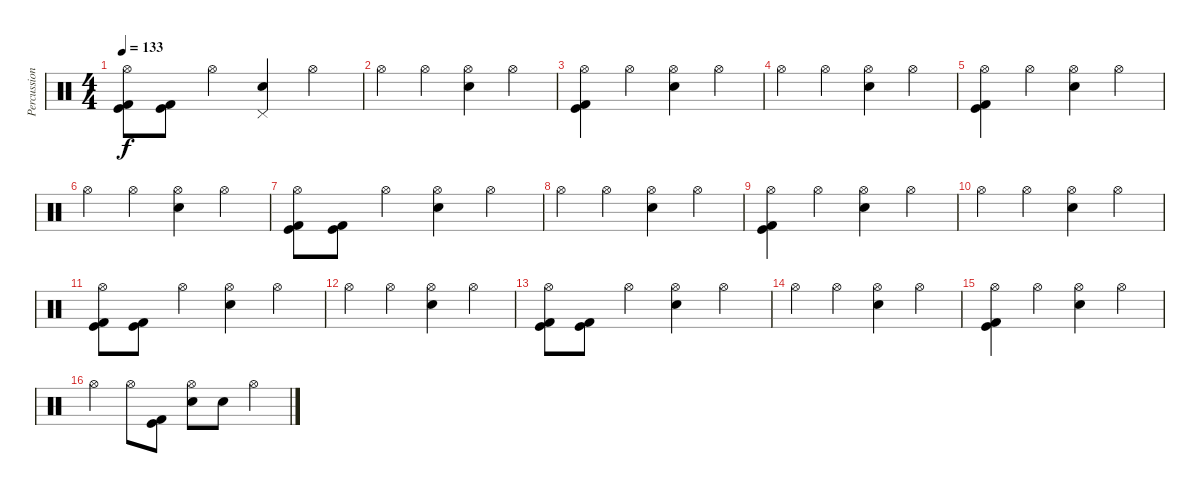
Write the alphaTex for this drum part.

\track ("Percussion" "Percussion") {instrument percussion}
\staff {score}
\articulation defaults
\ts (4 4)
\tempo 133
\clef neutral
\ks c
("Hi-Hat (open)" "Kick (hit)" "Kick (hit) 2").8{dy f} ("Kick (hit)" "Kick (hit) 2").8 "Hi-Hat (open)".4 ("Pedal Hi-Hat (hit)" "Electric Snare (hit)").4 "Hi-Hat (open)".4 |
"Hi-Hat (open)".4 "Hi-Hat (open)".4 ("Hi-Hat (open)" "Electric Snare (hit)").4 "Hi-Hat (open)".4 |
("Hi-Hat (open)" "Kick (hit)" "Kick (hit) 2").4 "Hi-Hat (open)".4 ("Hi-Hat (open)" "Electric Snare (hit)").4 "Hi-Hat (open)".4 |
"Hi-Hat (open)".4 "Hi-Hat (open)".4 ("Hi-Hat (open)" "Electric Snare (hit)").4 "Hi-Hat (open)".4 |
("Hi-Hat (open)" "Kick (hit)" "Kick (hit) 2").4 "Hi-Hat (open)".4 ("Hi-Hat (open)" "Electric Snare (hit)").4 "Hi-Hat (open)".4 |
"Hi-Hat (open)".4 "Hi-Hat (open)".4 ("Hi-Hat (open)" "Electric Snare (hit)").4 "Hi-Hat (open)".4 |
("Hi-Hat (open)" "Kick (hit)" "Kick (hit) 2").8 ("Kick (hit)" "Kick (hit) 2").8 "Hi-Hat (open)".4 ("Hi-Hat (open)" "Electric Snare (hit)").4 "Hi-Hat (open)".4 |
"Hi-Hat (open)".4 "Hi-Hat (open)".4 ("Hi-Hat (open)" "Electric Snare (hit)").4 "Hi-Hat (open)".4 |
("Hi-Hat (open)" "Kick (hit)" "Kick (hit) 2").4 "Hi-Hat (open)".4 ("Hi-Hat (open)" "Electric Snare (hit)").4 "Hi-Hat (open)".4 |
"Hi-Hat (open)".4 "Hi-Hat (open)".4 ("Hi-Hat (open)" "Electric Snare (hit)").4 "Hi-Hat (open)".4 |
("Hi-Hat (open)" "Kick (hit)" "Kick (hit) 2").8 ("Kick (hit)" "Kick (hit) 2").8 "Hi-Hat (open)".4 ("Hi-Hat (open)" "Electric Snare (hit)").4 "Hi-Hat (open)".4 |
"Hi-Hat (open)".4 "Hi-Hat (open)".4 ("Hi-Hat (open)" "Electric Snare (hit)").4 "Hi-Hat (open)".4 |
("Hi-Hat (open)" "Kick (hit)" "Kick (hit) 2").8 ("Kick (hit)" "Kick (hit) 2").8 "Hi-Hat (open)".4 ("Hi-Hat (open)" "Electric Snare (hit)").4 "Hi-Hat (open)".4 |
"Hi-Hat (open)".4 "Hi-Hat (open)".4 ("Hi-Hat (open)" "Electric Snare (hit)").4 "Hi-Hat (open)".4 |
("Hi-Hat (open)" "Kick (hit)" "Kick (hit) 2").4 "Hi-Hat (open)".4 ("Hi-Hat (open)" "Electric Snare (hit)").4 "Hi-Hat (open)".4 |
"Hi-Hat (open)".4 "Hi-Hat (open)".8 ("Kick (hit)" "Kick (hit) 2").8 ("Hi-Hat (open)" "Electric Snare (hit)").8 "Electric Snare (hit)".8 "Hi-Hat (open)".4
